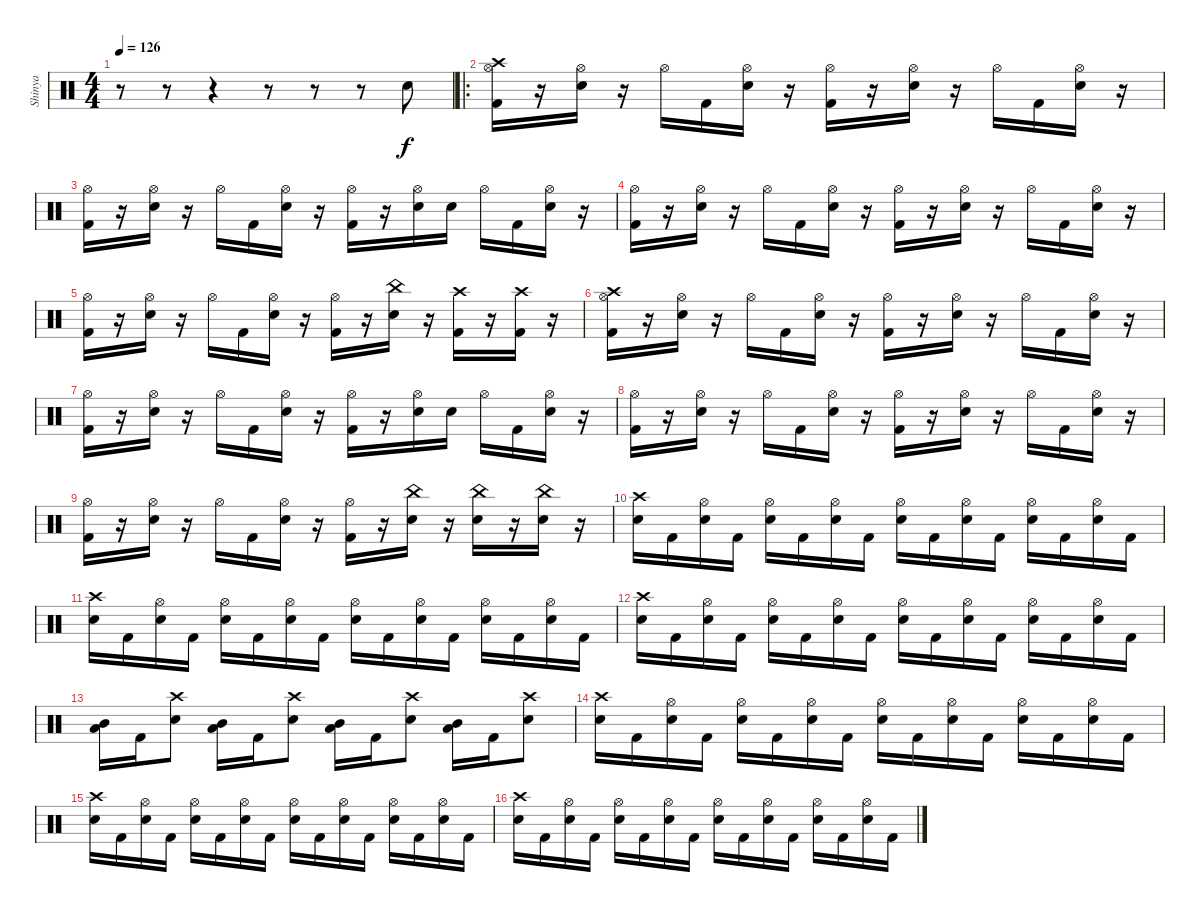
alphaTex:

\track ("Shinya" "Shinya") {instrument percussion}
\staff {score}
\articulation defaults
\ts (4 4)
\tempo 126
\clef neutral
\ks c
r.8{dy f} r.8 r.4 r.8 r.8 r.8 "Electric Snare (hit)".8 |
\ro
("Hi-Hat (open)" "Crash high (hit)" "Kick (hit) 2").16 r.16 ("Hi-Hat (open)" "Electric Snare (hit)").16 r.16 "Hi-Hat (open)".16 "Kick (hit) 2".16 ("Hi-Hat (open)" "Electric Snare (hit)").16 r.16 ("Hi-Hat (open)" "Kick (hit) 2").16 r.16 ("Hi-Hat (open)" "Electric Snare (hit)").16 r.16 "Hi-Hat (open)".16 "Kick (hit) 2".16 ("Hi-Hat (open)" "Electric Snare (hit)").16 r.16 |
("Hi-Hat (open)" "Kick (hit) 2").16 r.16 ("Hi-Hat (open)" "Electric Snare (hit)").16 r.16 "Hi-Hat (open)".16 "Kick (hit) 2".16 ("Hi-Hat (open)" "Electric Snare (hit)").16 r.16 ("Hi-Hat (open)" "Kick (hit) 2").16 r.16 ("Hi-Hat (open)" "Electric Snare (hit)").16 "Electric Snare (hit)".16 "Hi-Hat (open)".16 "Kick (hit) 2".16 ("Hi-Hat (open)" "Electric Snare (hit)").16 r.16 |
("Hi-Hat (open)" "Kick (hit) 2").16 r.16 ("Hi-Hat (open)" "Electric Snare (hit)").16 r.16 "Hi-Hat (open)".16 "Kick (hit) 2".16 ("Hi-Hat (open)" "Electric Snare (hit)").16 r.16 ("Hi-Hat (open)" "Kick (hit) 2").16 r.16 ("Hi-Hat (open)" "Electric Snare (hit)").16 r.16 "Hi-Hat (open)".16 "Kick (hit) 2".16 ("Hi-Hat (open)" "Electric Snare (hit)").16 r.16 |
("Hi-Hat (open)" "Kick (hit) 2").16 r.16 ("Hi-Hat (open)" "Electric Snare (hit)").16 r.16 "Hi-Hat (open)".16 "Kick (hit) 2".16 ("Hi-Hat (open)" "Electric Snare (hit)").16 r.16 ("Hi-Hat (open)" "Kick (hit) 2").16 r.16 ("China (hit)" "Electric Snare (hit)").16 r.16 ("Crash high (hit)" "Kick (hit) 2").16 r.16 ("Crash high (hit)" "Kick (hit) 2").16 r.16 |
("Hi-Hat (open)" "Crash high (hit)" "Kick (hit) 2").16 r.16 ("Hi-Hat (open)" "Electric Snare (hit)").16 r.16 "Hi-Hat (open)".16 "Kick (hit) 2".16 ("Hi-Hat (open)" "Electric Snare (hit)").16 r.16 ("Hi-Hat (open)" "Kick (hit) 2").16 r.16 ("Hi-Hat (open)" "Electric Snare (hit)").16 r.16 "Hi-Hat (open)".16 "Kick (hit) 2".16 ("Hi-Hat (open)" "Electric Snare (hit)").16 r.16 |
("Hi-Hat (open)" "Kick (hit) 2").16 r.16 ("Hi-Hat (open)" "Electric Snare (hit)").16 r.16 "Hi-Hat (open)".16 "Kick (hit) 2".16 ("Hi-Hat (open)" "Electric Snare (hit)").16 r.16 ("Hi-Hat (open)" "Kick (hit) 2").16 r.16 ("Hi-Hat (open)" "Electric Snare (hit)").16 "Electric Snare (hit)".16 "Hi-Hat (open)".16 "Kick (hit) 2".16 ("Hi-Hat (open)" "Electric Snare (hit)").16 r.16 |
("Hi-Hat (open)" "Kick (hit) 2").16 r.16 ("Hi-Hat (open)" "Electric Snare (hit)").16 r.16 "Hi-Hat (open)".16 "Kick (hit) 2".16 ("Hi-Hat (open)" "Electric Snare (hit)").16 r.16 ("Hi-Hat (open)" "Kick (hit) 2").16 r.16 ("Hi-Hat (open)" "Electric Snare (hit)").16 r.16 "Hi-Hat (open)".16 "Kick (hit) 2".16 ("Hi-Hat (open)" "Electric Snare (hit)").16 r.16 |
("Hi-Hat (open)" "Kick (hit) 2").16 r.16 ("Hi-Hat (open)" "Electric Snare (hit)").16 r.16 "Hi-Hat (open)".16 "Kick (hit) 2".16 ("Hi-Hat (open)" "Electric Snare (hit)").16 r.16 ("Hi-Hat (open)" "Kick (hit) 2").16 r.16 ("China (hit)" "Electric Snare (hit)").16 r.16 ("China (hit)" "Electric Snare (hit)").16 r.16 ("China (hit)" "Electric Snare (hit)").16 r.16 |
("Crash high (hit)" "Electric Snare (hit)").16 "Kick (hit) 2".16 ("Hi-Hat (open)" "Electric Snare (hit)").16 "Kick (hit) 2".16 ("Hi-Hat (open)" "Electric Snare (hit)").16 "Kick (hit) 2".16 ("Hi-Hat (open)" "Electric Snare (hit)").16 "Kick (hit) 2".16 ("Hi-Hat (open)" "Electric Snare (hit)").16 "Kick (hit) 2".16 ("Hi-Hat (open)" "Electric Snare (hit)").16 "Kick (hit) 2".16 ("Hi-Hat (open)" "Electric Snare (hit)").16 "Kick (hit) 2".16 ("Hi-Hat (open)" "Electric Snare (hit)").16 "Kick (hit) 2".16 |
("Crash high (hit)" "Electric Snare (hit)").16 "Kick (hit) 2".16 ("Hi-Hat (open)" "Electric Snare (hit)").16 "Kick (hit) 2".16 ("Hi-Hat (open)" "Electric Snare (hit)").16 "Kick (hit) 2".16 ("Hi-Hat (open)" "Electric Snare (hit)").16 "Kick (hit) 2".16 ("Hi-Hat (open)" "Electric Snare (hit)").16 "Kick (hit) 2".16 ("Hi-Hat (open)" "Electric Snare (hit)").16 "Kick (hit) 2".16 ("Hi-Hat (open)" "Electric Snare (hit)").16 "Kick (hit) 2".16 ("Hi-Hat (open)" "Electric Snare (hit)").16 "Kick (hit) 2".16 |
("Crash high (hit)" "Electric Snare (hit)").16 "Kick (hit) 2".16 ("Hi-Hat (open)" "Electric Snare (hit)").16 "Kick (hit) 2".16 ("Hi-Hat (open)" "Electric Snare (hit)").16 "Kick (hit) 2".16 ("Hi-Hat (open)" "Electric Snare (hit)").16 "Kick (hit) 2".16 ("Hi-Hat (open)" "Electric Snare (hit)").16 "Kick (hit) 2".16 ("Hi-Hat (open)" "Electric Snare (hit)").16 "Kick (hit) 2".16 ("Hi-Hat (open)" "Electric Snare (hit)").16 "Kick (hit) 2".16 ("Hi-Hat (open)" "Electric Snare (hit)").16 "Kick (hit) 2".16 |
("Low Tom (hit)" "Mid Tom (hit)").16 "Kick (hit) 2".16 ("Crash high (hit)" "Electric Snare (hit)").8 ("Low Tom (hit)" "Mid Tom (hit)").16 "Kick (hit) 2".16 ("Crash high (hit)" "Electric Snare (hit)").8 ("Low Tom (hit)" "Mid Tom (hit)").16 "Kick (hit) 2".16 ("Crash high (hit)" "Electric Snare (hit)").8 ("Low Tom (hit)" "Mid Tom (hit)").16 "Kick (hit) 2".16 ("Crash high (hit)" "Electric Snare (hit)").8 |
("Crash high (hit)" "Electric Snare (hit)").16 "Kick (hit) 2".16 ("Hi-Hat (open)" "Electric Snare (hit)").16 "Kick (hit) 2".16 ("Hi-Hat (open)" "Electric Snare (hit)").16 "Kick (hit) 2".16 ("Hi-Hat (open)" "Electric Snare (hit)").16 "Kick (hit) 2".16 ("Hi-Hat (open)" "Electric Snare (hit)").16 "Kick (hit) 2".16 ("Hi-Hat (open)" "Electric Snare (hit)").16 "Kick (hit) 2".16 ("Hi-Hat (open)" "Electric Snare (hit)").16 "Kick (hit) 2".16 ("Hi-Hat (open)" "Electric Snare (hit)").16 "Kick (hit) 2".16 |
("Crash high (hit)" "Electric Snare (hit)").16 "Kick (hit) 2".16 ("Hi-Hat (open)" "Electric Snare (hit)").16 "Kick (hit) 2".16 ("Hi-Hat (open)" "Electric Snare (hit)").16 "Kick (hit) 2".16 ("Hi-Hat (open)" "Electric Snare (hit)").16 "Kick (hit) 2".16 ("Hi-Hat (open)" "Electric Snare (hit)").16 "Kick (hit) 2".16 ("Hi-Hat (open)" "Electric Snare (hit)").16 "Kick (hit) 2".16 ("Hi-Hat (open)" "Electric Snare (hit)").16 "Kick (hit) 2".16 ("Hi-Hat (open)" "Electric Snare (hit)").16 "Kick (hit) 2".16 |
("Crash high (hit)" "Electric Snare (hit)").16 "Kick (hit) 2".16 ("Hi-Hat (open)" "Electric Snare (hit)").16 "Kick (hit) 2".16 ("Hi-Hat (open)" "Electric Snare (hit)").16 "Kick (hit) 2".16 ("Hi-Hat (open)" "Electric Snare (hit)").16 "Kick (hit) 2".16 ("Hi-Hat (open)" "Electric Snare (hit)").16 "Kick (hit) 2".16 ("Hi-Hat (open)" "Electric Snare (hit)").16 "Kick (hit) 2".16 ("Hi-Hat (open)" "Electric Snare (hit)").16 "Kick (hit) 2".16 ("Hi-Hat (open)" "Electric Snare (hit)").16 "Kick (hit) 2".16
